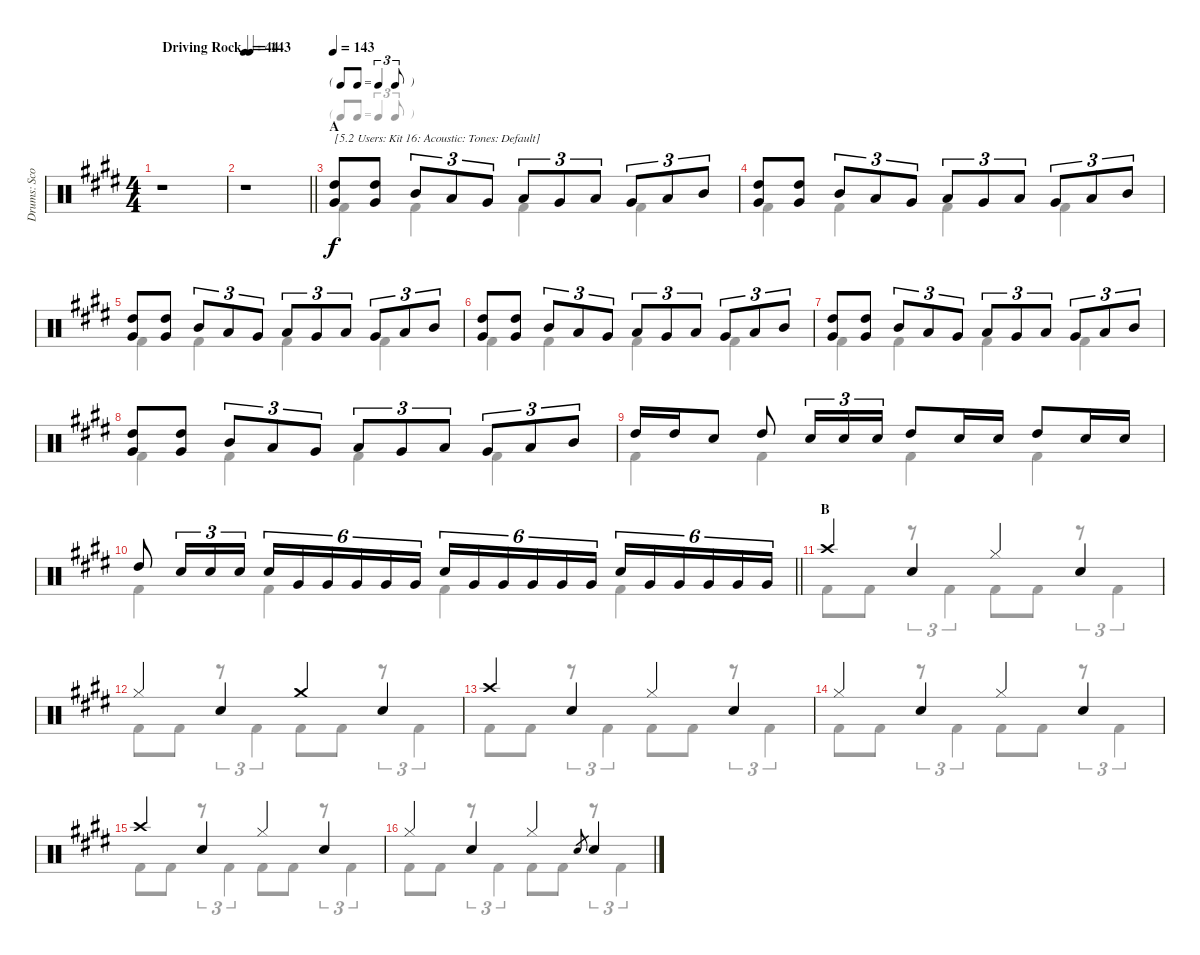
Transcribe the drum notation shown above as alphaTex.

\track ("Drums: Scott" "Drums: Sco") {instrument percussion}
\staff {score}
\articulation defaults
\voice
\ts (4 4)
\tempo (143 "Driving Rock")
\tempo 82
\tempo (143 "Driving Rock")
\clef neutral
\ks e
r.1{dy f} |
\tempo 44
\barLineRight lightlight
r.1 |
\tf triplet8th
\section ("" "A")
\tempo 143
("High Tom (hit)" "Very Low Tom (hit)").8{txt "[5.2 Users: Kit 16: Acoustic: Tones: Default]"} ("High Tom (hit)" "Very Low Tom (hit)").8 "Mid Tom (hit)".8{tu (3 2)} "Low Tom (hit)".8{tu (3 2)} "Very Low Tom (hit)".8{tu (3 2)} "Low Tom (hit)".8{tu (3 2)} "Very Low Tom (hit)".8{tu (3 2)} "Low Tom (hit)".8{tu (3 2)} "Very Low Tom (hit)".8{tu (3 2)} "Low Tom (hit)".8{tu (3 2)} "Mid Tom (hit)".8{tu (3 2)} |
("High Tom (hit)" "Very Low Tom (hit)").8 ("High Tom (hit)" "Very Low Tom (hit)").8 "Mid Tom (hit)".8{tu (3 2)} "Low Tom (hit)".8{tu (3 2)} "Very Low Tom (hit)".8{tu (3 2)} "Low Tom (hit)".8{tu (3 2)} "Very Low Tom (hit)".8{tu (3 2)} "Low Tom (hit)".8{tu (3 2)} "Very Low Tom (hit)".8{tu (3 2)} "Low Tom (hit)".8{tu (3 2)} "Mid Tom (hit)".8{tu (3 2)} |
("High Tom (hit)" "Very Low Tom (hit)").8 ("High Tom (hit)" "Very Low Tom (hit)").8 "Mid Tom (hit)".8{tu (3 2)} "Low Tom (hit)".8{tu (3 2)} "Very Low Tom (hit)".8{tu (3 2)} "Low Tom (hit)".8{tu (3 2)} "Very Low Tom (hit)".8{tu (3 2)} "Low Tom (hit)".8{tu (3 2)} "Very Low Tom (hit)".8{tu (3 2)} "Low Tom (hit)".8{tu (3 2)} "Mid Tom (hit)".8{tu (3 2)} |
("High Tom (hit)" "Very Low Tom (hit)").8 ("High Tom (hit)" "Very Low Tom (hit)").8 "Mid Tom (hit)".8{tu (3 2)} "Low Tom (hit)".8{tu (3 2)} "Very Low Tom (hit)".8{tu (3 2)} "Low Tom (hit)".8{tu (3 2)} "Very Low Tom (hit)".8{tu (3 2)} "Low Tom (hit)".8{tu (3 2)} "Very Low Tom (hit)".8{tu (3 2)} "Low Tom (hit)".8{tu (3 2)} "Mid Tom (hit)".8{tu (3 2)} |
("High Tom (hit)" "Very Low Tom (hit)").8 ("High Tom (hit)" "Very Low Tom (hit)").8 "Mid Tom (hit)".8{tu (3 2)} "Low Tom (hit)".8{tu (3 2)} "Very Low Tom (hit)".8{tu (3 2)} "Low Tom (hit)".8{tu (3 2)} "Very Low Tom (hit)".8{tu (3 2)} "Low Tom (hit)".8{tu (3 2)} "Very Low Tom (hit)".8{tu (3 2)} "Low Tom (hit)".8{tu (3 2)} "Mid Tom (hit)".8{tu (3 2)} |
("High Tom (hit)" "Very Low Tom (hit)").8 ("High Tom (hit)" "Very Low Tom (hit)").8 "Mid Tom (hit)".8{tu (3 2)} "Low Tom (hit)".8{tu (3 2)} "Very Low Tom (hit)".8{tu (3 2)} "Low Tom (hit)".8{tu (3 2)} "Very Low Tom (hit)".8{tu (3 2)} "Low Tom (hit)".8{tu (3 2)} "Very Low Tom (hit)".8{tu (3 2)} "Low Tom (hit)".8{tu (3 2)} "Mid Tom (hit)".8{tu (3 2)} |
"High Tom (hit)".16 "High Tom (hit)".16 "Electric Snare (hit)".8 "High Tom (hit)".8 "Electric Snare (hit)".16{tu (3 2)} "Electric Snare (hit)".16{tu (3 2)} "Electric Snare (hit)".16{tu (3 2)} "High Tom (hit)".8 "Electric Snare (hit)".16 "Electric Snare (hit)".16 "High Tom (hit)".8 "Electric Snare (hit)".16 "Snare (hit) 2".16 |
\barLineRight lightlight "High Tom (hit)".8 "Snare (hit) 2".16{tu (3 2)} "Snare (hit) 2".16{tu (3 2)} "Snare (hit) 2".16{tu (3 2)} "Snare (hit) 2".16{tu (6 4)} "Very Low Tom (hit)".16{tu (6 4)} "Very Low Tom (hit)".16{tu (6 4)} "Very Low Tom (hit)".16{tu (6 4)} "Very Low Tom (hit)".16{tu (6 4)} "Very Low Tom (hit)".16{tu (6 4)} "Snare (hit) 2".16{tu (6 4)} "Very Low Tom (hit)".16{tu (6 4)} "Very Low Tom (hit)".16{tu (6 4)} "Very Low Tom (hit)".16{tu (6 4)} "Very Low Tom (hit)".16{tu (6 4)} "Very Low Tom (hit)".16{tu (6 4)} "Snare (hit) 2".16{tu (6 4)} "Very Low Tom (hit)".16{tu (6 4)} "Very Low Tom (hit)".16{tu (6 4)} "Very Low Tom (hit)".16{tu (6 4)} "Very Low Tom (hit)".16{tu (6 4)} "Very Low Tom (hit)".16{tu (6 4)}
|
\section ("" "B")
"Crash high (hit)".4 "Snare (hit) 2".4 "Hi-Hat (closed)".4 "Snare (hit) 2".4 |
"Hi-Hat (closed)".4 "Snare (hit) 2".4 "Crash medium (hit)".4 "Snare (hit) 2".4 |
"Crash high (hit)".4 "Snare (hit) 2".4 "Hi-Hat (closed)".4 "Snare (hit) 2".4 |
"Hi-Hat (closed)".4 "Snare (hit) 2".4 "Hi-Hat (closed)".4 "Snare (hit) 2".4 |
"Crash high (hit)".4 "Snare (hit) 2".4 "Hi-Hat (closed)".4 "Snare (hit) 2".4 |
"Hi-Hat (closed)".4 "Snare (hit) 2".4 "Hi-Hat (closed)".4 "Electric Snare (hit)".8{gr} "Snare (hit) 2".4
\voice
\clef neutral
\ottava regular
\simile none
\ks e
|
\barLineRight lightlight
|
"Kick (hit) 2".4 "Kick (hit) 2".4 "Kick (hit) 2".4 "Kick (hit) 2".4 |
"Kick (hit) 2".4 "Kick (hit) 2".4 "Kick (hit) 2".4 "Kick (hit) 2".4 |
"Kick (hit) 2".4 "Kick (hit) 2".4 "Kick (hit) 2".4 "Kick (hit) 2".4 |
"Kick (hit) 2".4 "Kick (hit) 2".4 "Kick (hit) 2".4 "Kick (hit) 2".4 |
"Kick (hit) 2".4 "Kick (hit) 2".4 "Kick (hit) 2".4 "Kick (hit) 2".4 |
"Kick (hit) 2".4 "Kick (hit) 2".4 "Kick (hit) 2".4 "Kick (hit) 2".4 |
"Kick (hit) 2".4 "Kick (hit) 2".4 "Kick (hit) 2".4 "Kick (hit) 2".4 |
\barLineRight lightlight "Kick (hit) 2".4 "Kick (hit) 2".4 "Kick (hit) 2".4 "Kick (hit) 2".4
|
"Kick (hit) 2".8 "Kick (hit) 2".8 r.8{tu (3 2)} "Kick (hit) 2".4{tu (3 2)} "Kick (hit) 2".8 "Kick (hit) 2".8 r.8{tu (3 2)} "Kick (hit) 2".4{tu (3 2)} |
"Kick (hit) 2".8 "Kick (hit) 2".8 r.8{tu (3 2)} "Kick (hit) 2".4{tu (3 2)} "Kick (hit) 2".8 "Kick (hit) 2".8 r.8{tu (3 2)} "Kick (hit) 2".4{tu (3 2)} |
"Kick (hit) 2".8 "Kick (hit) 2".8 r.8{tu (3 2)} "Kick (hit) 2".4{tu (3 2)} "Kick (hit) 2".8 "Kick (hit) 2".8 r.8{tu (3 2)} "Kick (hit) 2".4{tu (3 2)} |
"Kick (hit) 2".8 "Kick (hit) 2".8 r.8{tu (3 2)} "Kick (hit) 2".4{tu (3 2)} "Kick (hit) 2".8 "Kick (hit) 2".8 r.8{tu (3 2)} "Kick (hit) 2".4{tu (3 2)} |
"Kick (hit) 2".8 "Kick (hit) 2".8 r.8{tu (3 2)} "Kick (hit) 2".4{tu (3 2)} "Kick (hit) 2".8 "Kick (hit) 2".8 r.8{tu (3 2)} "Kick (hit) 2".4{tu (3 2)} |
"Kick (hit) 2".8 "Kick (hit) 2".8 r.8{tu (3 2)} "Kick (hit) 2".4{tu (3 2)} "Kick (hit) 2".8 "Kick (hit) 2".8 r.8{tu (3 2)} "Kick (hit) 2".4{tu (3 2)}
